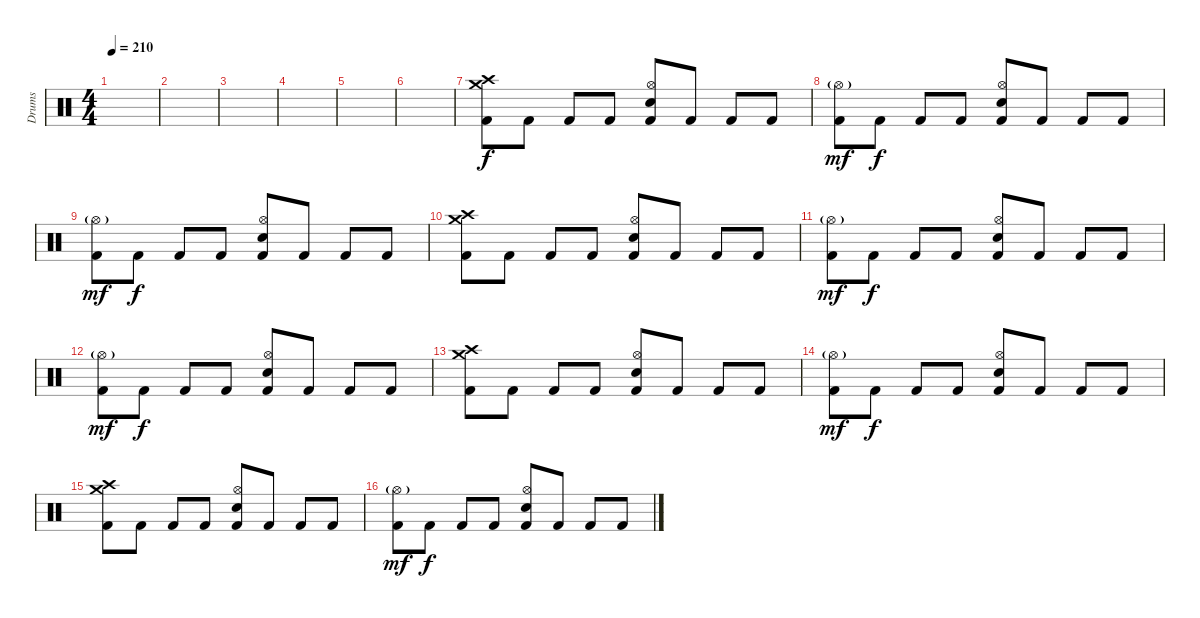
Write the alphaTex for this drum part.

\track ("Drums" "Drums") {instrument percussion}
\staff {score}
\articulation defaults
\ts (4 4)
\tempo 210
\clef neutral
\ks c
|
|
|
|
|
|
("Crash high (hit)" "Crash medium (hit)" "Kick (hit) 2").8 "Kick (hit) 2".8 "Kick (hit) 2".8 "Kick (hit) 2".8 ("Hi-Hat (open)" "Electric Snare (hit)" "Kick (hit) 2").8 "Kick (hit) 2".8 "Kick (hit) 2".8 "Kick (hit) 2".8 |
("Hi-Hat (open)"{g} "Kick (hit) 2").8{dy mf} "Kick (hit) 2".8{dy f} "Kick (hit) 2".8 "Kick (hit) 2".8 ("Hi-Hat (open)" "Electric Snare (hit)" "Kick (hit) 2").8 "Kick (hit) 2".8 "Kick (hit) 2".8 "Kick (hit) 2".8 |
("Hi-Hat (open)"{g} "Kick (hit) 2").8{dy mf} "Kick (hit) 2".8{dy f} "Kick (hit) 2".8 "Kick (hit) 2".8 ("Hi-Hat (open)" "Electric Snare (hit)" "Kick (hit) 2").8 "Kick (hit) 2".8 "Kick (hit) 2".8 "Kick (hit) 2".8 |
("Crash high (hit)" "Crash medium (hit)" "Kick (hit) 2").8 "Kick (hit) 2".8 "Kick (hit) 2".8 "Kick (hit) 2".8 ("Hi-Hat (open)" "Electric Snare (hit)" "Kick (hit) 2").8 "Kick (hit) 2".8 "Kick (hit) 2".8 "Kick (hit) 2".8 |
("Hi-Hat (open)"{g} "Kick (hit) 2").8{dy mf} "Kick (hit) 2".8{dy f} "Kick (hit) 2".8 "Kick (hit) 2".8 ("Hi-Hat (open)" "Electric Snare (hit)" "Kick (hit) 2").8 "Kick (hit) 2".8 "Kick (hit) 2".8 "Kick (hit) 2".8 |
("Hi-Hat (open)"{g} "Kick (hit) 2").8{dy mf} "Kick (hit) 2".8{dy f} "Kick (hit) 2".8 "Kick (hit) 2".8 ("Hi-Hat (open)" "Electric Snare (hit)" "Kick (hit) 2").8 "Kick (hit) 2".8 "Kick (hit) 2".8 "Kick (hit) 2".8 |
("Crash high (hit)" "Crash medium (hit)" "Kick (hit) 2").8 "Kick (hit) 2".8 "Kick (hit) 2".8 "Kick (hit) 2".8 ("Hi-Hat (open)" "Electric Snare (hit)" "Kick (hit) 2").8 "Kick (hit) 2".8 "Kick (hit) 2".8 "Kick (hit) 2".8 |
("Hi-Hat (open)"{g} "Kick (hit) 2").8{dy mf} "Kick (hit) 2".8{dy f} "Kick (hit) 2".8 "Kick (hit) 2".8 ("Hi-Hat (open)" "Electric Snare (hit)" "Kick (hit) 2").8 "Kick (hit) 2".8 "Kick (hit) 2".8 "Kick (hit) 2".8 |
("Crash high (hit)" "Crash medium (hit)" "Kick (hit) 2").8 "Kick (hit) 2".8 "Kick (hit) 2".8 "Kick (hit) 2".8 ("Hi-Hat (open)" "Electric Snare (hit)" "Kick (hit) 2").8 "Kick (hit) 2".8 "Kick (hit) 2".8 "Kick (hit) 2".8 |
("Hi-Hat (open)"{g} "Kick (hit) 2").8{dy mf} "Kick (hit) 2".8{dy f} "Kick (hit) 2".8 "Kick (hit) 2".8 ("Hi-Hat (open)" "Electric Snare (hit)" "Kick (hit) 2").8 "Kick (hit) 2".8 "Kick (hit) 2".8 "Kick (hit) 2".8
